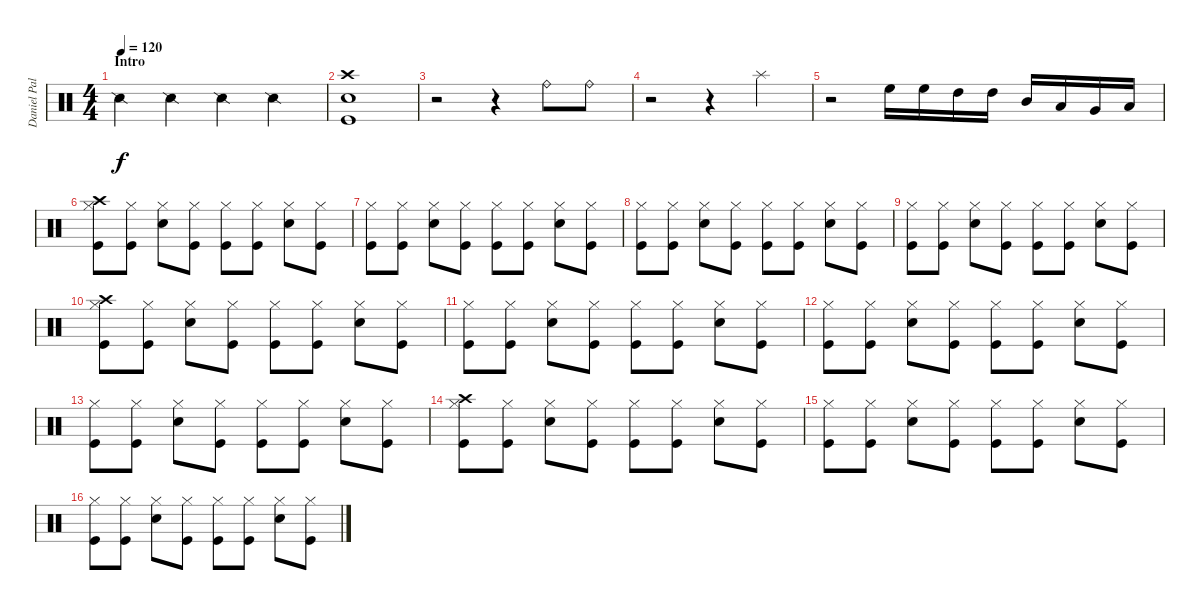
\track ("Daniel Pal" "Daniel Pal") {instrument percussion}
\staff {score}
\articulation defaults
\ts (4 4)
\section ("" "Intro")
\tempo 120
\clef neutral
\ks c "Snare (side stick) 2".4{dy f} "Snare (side stick) 2".4 "Snare (side stick) 2".4 "Snare (side stick) 2".4
|
("Crash high (hit)" "Electric Snare (hit)" "Kick (hit)").1 |
r.2 r.4 "Ride (bell)".8 "Ride (bell)".8 |
r.2 r.4 "Splash (hit)".4 |
r.2 "High Floor Tom (hit)".16 "High Floor Tom (hit)".16 "High Tom (hit)".16 "High Tom (hit)".16 "Mid Tom (hit)".16 "Low Tom (hit)".16 "Very Low Tom (hit)".16 "Low Floor Tom (hit)".16 |
("Crash high (hit)" "Hi-Hat (closed)" "Kick (hit)").8 ("Hi-Hat (closed)" "Kick (hit)").8 ("Hi-Hat (closed)" "Electric Snare (hit)").8 ("Hi-Hat (closed)" "Kick (hit)").8 ("Hi-Hat (closed)" "Kick (hit)").8 ("Hi-Hat (closed)" "Kick (hit)").8 ("Hi-Hat (closed)" "Electric Snare (hit)").8 ("Hi-Hat (closed)" "Kick (hit)").8 |
("Hi-Hat (closed)" "Kick (hit)").8 ("Hi-Hat (closed)" "Kick (hit)").8 ("Hi-Hat (closed)" "Electric Snare (hit)").8 ("Hi-Hat (closed)" "Kick (hit)").8 ("Hi-Hat (closed)" "Kick (hit)").8 ("Hi-Hat (closed)" "Kick (hit)").8 ("Hi-Hat (closed)" "Electric Snare (hit)").8 ("Hi-Hat (closed)" "Kick (hit)").8 |
("Hi-Hat (closed)" "Kick (hit)").8 ("Hi-Hat (closed)" "Kick (hit)").8 ("Hi-Hat (closed)" "Electric Snare (hit)").8 ("Hi-Hat (closed)" "Kick (hit)").8 ("Hi-Hat (closed)" "Kick (hit)").8 ("Hi-Hat (closed)" "Kick (hit)").8 ("Hi-Hat (closed)" "Electric Snare (hit)").8 ("Hi-Hat (closed)" "Kick (hit)").8 |
("Hi-Hat (closed)" "Kick (hit)").8 ("Hi-Hat (closed)" "Kick (hit)").8 ("Hi-Hat (closed)" "Electric Snare (hit)").8 ("Hi-Hat (closed)" "Kick (hit)").8 ("Hi-Hat (closed)" "Kick (hit)").8 ("Hi-Hat (closed)" "Kick (hit)").8 ("Hi-Hat (closed)" "Electric Snare (hit)").8 ("Hi-Hat (closed)" "Kick (hit)").8 |
("Crash high (hit)" "Hi-Hat (closed)" "Kick (hit)").8 ("Hi-Hat (closed)" "Kick (hit)").8 ("Hi-Hat (closed)" "Electric Snare (hit)").8 ("Hi-Hat (closed)" "Kick (hit)").8 ("Hi-Hat (closed)" "Kick (hit)").8 ("Hi-Hat (closed)" "Kick (hit)").8 ("Hi-Hat (closed)" "Electric Snare (hit)").8 ("Hi-Hat (closed)" "Kick (hit)").8 |
("Hi-Hat (closed)" "Kick (hit)").8 ("Hi-Hat (closed)" "Kick (hit)").8 ("Hi-Hat (closed)" "Electric Snare (hit)").8 ("Hi-Hat (closed)" "Kick (hit)").8 ("Hi-Hat (closed)" "Kick (hit)").8 ("Hi-Hat (closed)" "Kick (hit)").8 ("Hi-Hat (closed)" "Electric Snare (hit)").8 ("Hi-Hat (closed)" "Kick (hit)").8 |
("Hi-Hat (closed)" "Kick (hit)").8 ("Hi-Hat (closed)" "Kick (hit)").8 ("Hi-Hat (closed)" "Electric Snare (hit)").8 ("Hi-Hat (closed)" "Kick (hit)").8 ("Hi-Hat (closed)" "Kick (hit)").8 ("Hi-Hat (closed)" "Kick (hit)").8 ("Hi-Hat (closed)" "Electric Snare (hit)").8 ("Hi-Hat (closed)" "Kick (hit)").8 |
("Hi-Hat (closed)" "Kick (hit)").8 ("Hi-Hat (closed)" "Kick (hit)").8 ("Hi-Hat (closed)" "Electric Snare (hit)").8 ("Hi-Hat (closed)" "Kick (hit)").8 ("Hi-Hat (closed)" "Kick (hit)").8 ("Hi-Hat (closed)" "Kick (hit)").8 ("Hi-Hat (closed)" "Electric Snare (hit)").8 ("Hi-Hat (closed)" "Kick (hit)").8 |
("Crash high (hit)" "Hi-Hat (closed)" "Kick (hit)").8 ("Hi-Hat (closed)" "Kick (hit)").8 ("Hi-Hat (closed)" "Electric Snare (hit)").8 ("Hi-Hat (closed)" "Kick (hit)").8 ("Hi-Hat (closed)" "Kick (hit)").8 ("Hi-Hat (closed)" "Kick (hit)").8 ("Hi-Hat (closed)" "Electric Snare (hit)").8 ("Hi-Hat (closed)" "Kick (hit)").8 |
("Hi-Hat (closed)" "Kick (hit)").8 ("Hi-Hat (closed)" "Kick (hit)").8 ("Hi-Hat (closed)" "Electric Snare (hit)").8 ("Hi-Hat (closed)" "Kick (hit)").8 ("Hi-Hat (closed)" "Kick (hit)").8 ("Hi-Hat (closed)" "Kick (hit)").8 ("Hi-Hat (closed)" "Electric Snare (hit)").8 ("Hi-Hat (closed)" "Kick (hit)").8 |
("Hi-Hat (closed)" "Kick (hit)").8 ("Hi-Hat (closed)" "Kick (hit)").8 ("Hi-Hat (closed)" "Electric Snare (hit)").8 ("Hi-Hat (closed)" "Kick (hit)").8 ("Hi-Hat (closed)" "Kick (hit)").8 ("Hi-Hat (closed)" "Kick (hit)").8 ("Hi-Hat (closed)" "Electric Snare (hit)").8 ("Hi-Hat (closed)" "Kick (hit)").8
